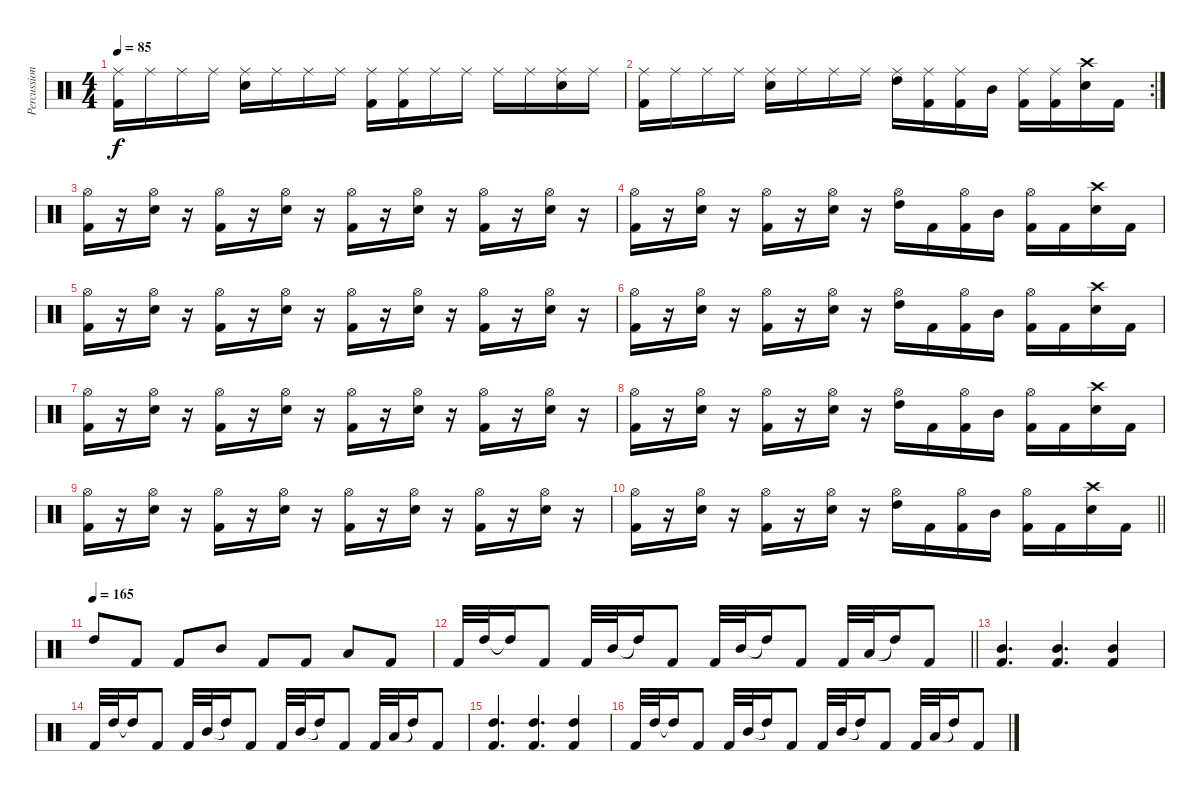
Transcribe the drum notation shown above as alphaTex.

\track ("Percussion" "Percussion") {instrument percussion}
\staff {score}
\articulation defaults
\ts (4 4)
\tempo 85
\clef neutral
\ks c
("Ride (middle)" "Kick (hit) 2").16{dy f} "Ride (middle)".16 "Ride (middle)".16 "Ride (middle)".16 ("Ride (middle)" "Electric Snare (hit)").16 "Ride (middle)".16 "Ride (middle)".16 "Ride (middle)".16 ("Ride (middle)" "Kick (hit) 2").16 ("Ride (middle)" "Kick (hit) 2").16 "Ride (middle)".16 "Ride (middle)".16 "Ride (middle)".16 "Ride (middle)".16 ("Ride (middle)" "Electric Snare (hit)").16 "Ride (middle)".16 |
\rc 2
("Ride (middle)" "Kick (hit) 2").16 "Ride (middle)".16 "Ride (middle)".16 "Ride (middle)".16 ("Ride (middle)" "Electric Snare (hit)").16 "Ride (middle)".16 "Ride (middle)".16 "Ride (middle)".16 ("Ride (middle)" "High Tom (hit)").16 ("Ride (middle)" "Kick (hit) 2").16 ("Ride (middle)" "Kick (hit) 2").16 "Mid Tom (hit)".16 ("Ride (middle)" "Kick (hit) 2").16 ("Ride (middle)" "Kick (hit) 2").16 ("Crash high (hit)" "Electric Snare (hit)").16 "Kick (hit) 2".16 |
("Hi-Hat (open)" "Kick (hit) 2").16 r.16 ("Hi-Hat (open)" "Electric Snare (hit)").16 r.16 ("Hi-Hat (open)" "Kick (hit) 2").16 r.16 ("Hi-Hat (open)" "Electric Snare (hit)").16 r.16 ("Hi-Hat (open)" "Kick (hit) 2").16 r.16 ("Hi-Hat (open)" "Electric Snare (hit)").16 r.16 ("Hi-Hat (open)" "Kick (hit) 2").16 r.16 ("Hi-Hat (open)" "Electric Snare (hit)").16 r.16 |
("Hi-Hat (open)" "Kick (hit) 2").16 r.16 ("Hi-Hat (open)" "Electric Snare (hit)").16 r.16 ("Hi-Hat (open)" "Kick (hit) 2").16 r.16 ("Hi-Hat (open)" "Electric Snare (hit)").16 r.16 ("Hi-Hat (open)" "High Tom (hit)").16 "Kick (hit) 2".16 ("Hi-Hat (open)" "Kick (hit) 2").16 "Mid Tom (hit)".16 ("Hi-Hat (open)" "Kick (hit) 2").16 "Kick (hit) 2".16 ("Crash high (hit)" "Electric Snare (hit)").16 "Kick (hit) 2".16 |
("Hi-Hat (open)" "Kick (hit) 2").16 r.16 ("Hi-Hat (open)" "Electric Snare (hit)").16 r.16 ("Hi-Hat (open)" "Kick (hit) 2").16 r.16 ("Hi-Hat (open)" "Electric Snare (hit)").16 r.16 ("Hi-Hat (open)" "Kick (hit) 2").16 r.16 ("Hi-Hat (open)" "Electric Snare (hit)").16 r.16 ("Hi-Hat (open)" "Kick (hit) 2").16 r.16 ("Hi-Hat (open)" "Electric Snare (hit)").16 r.16 |
("Hi-Hat (open)" "Kick (hit) 2").16 r.16 ("Hi-Hat (open)" "Electric Snare (hit)").16 r.16 ("Hi-Hat (open)" "Kick (hit) 2").16 r.16 ("Hi-Hat (open)" "Electric Snare (hit)").16 r.16 ("Hi-Hat (open)" "High Tom (hit)").16 "Kick (hit) 2".16 ("Hi-Hat (open)" "Kick (hit) 2").16 "Mid Tom (hit)".16 ("Hi-Hat (open)" "Kick (hit) 2").16 "Kick (hit) 2".16 ("Crash high (hit)" "Electric Snare (hit)").16 "Kick (hit) 2".16 |
("Hi-Hat (open)" "Kick (hit) 2").16 r.16 ("Hi-Hat (open)" "Electric Snare (hit)").16 r.16 ("Hi-Hat (open)" "Kick (hit) 2").16 r.16 ("Hi-Hat (open)" "Electric Snare (hit)").16 r.16 ("Hi-Hat (open)" "Kick (hit) 2").16 r.16 ("Hi-Hat (open)" "Electric Snare (hit)").16 r.16 ("Hi-Hat (open)" "Kick (hit) 2").16 r.16 ("Hi-Hat (open)" "Electric Snare (hit)").16 r.16 |
("Hi-Hat (open)" "Kick (hit) 2").16 r.16 ("Hi-Hat (open)" "Electric Snare (hit)").16 r.16 ("Hi-Hat (open)" "Kick (hit) 2").16 r.16 ("Hi-Hat (open)" "Electric Snare (hit)").16 r.16 ("Hi-Hat (open)" "High Tom (hit)").16 "Kick (hit) 2".16 ("Hi-Hat (open)" "Kick (hit) 2").16 "Mid Tom (hit)".16 ("Hi-Hat (open)" "Kick (hit) 2").16 "Kick (hit) 2".16 ("Crash high (hit)" "Electric Snare (hit)").16 "Kick (hit) 2".16 |
("Hi-Hat (open)" "Kick (hit) 2").16 r.16 ("Hi-Hat (open)" "Electric Snare (hit)").16 r.16 ("Hi-Hat (open)" "Kick (hit) 2").16 r.16 ("Hi-Hat (open)" "Electric Snare (hit)").16 r.16 ("Hi-Hat (open)" "Kick (hit) 2").16 r.16 ("Hi-Hat (open)" "Electric Snare (hit)").16 r.16 ("Hi-Hat (open)" "Kick (hit) 2").16 r.16 ("Hi-Hat (open)" "Electric Snare (hit)").16 r.16 |
\barLineRight lightlight
("Hi-Hat (open)" "Kick (hit) 2").16 r.16 ("Hi-Hat (open)" "Electric Snare (hit)").16 r.16 ("Hi-Hat (open)" "Kick (hit) 2").16 r.16 ("Hi-Hat (open)" "Electric Snare (hit)").16 r.16 ("Hi-Hat (open)" "High Tom (hit)").16 "Kick (hit) 2".16 ("Hi-Hat (open)" "Kick (hit) 2").16 "Mid Tom (hit)".16 ("Hi-Hat (open)" "Kick (hit) 2").16 "Kick (hit) 2".16 ("Crash high (hit)" "Electric Snare (hit)").16 "Kick (hit) 2".16 |
\tempo (165)
"High Tom (hit)".8 "Kick (hit) 2".8 "Kick (hit) 2".8 "Mid Tom (hit)".8 "Kick (hit) 2".8 "Kick (hit) 2".8 "Low Tom (hit)".8 "Kick (hit) 2".8 |
\barLineRight lightlight "Kick (hit) 2".32 "High Tom (hit)".32 "High Tom (hit)"{t}.16 "Kick (hit) 2".8 "Kick (hit) 2".32 "Mid Tom (hit)".32 "High Tom (hit)"{t}.16 "Kick (hit) 2".8 "Kick (hit) 2".32 "Mid Tom (hit)".32 "High Tom (hit)"{t}.16 "Kick (hit) 2".8 "Kick (hit) 2".32 "Low Tom (hit)".32 "High Tom (hit)"{t}.16 "Kick (hit) 2".8
|
("Mid Tom (hit)" "Kick (hit) 2").4{d} ("Mid Tom (hit)" "Kick (hit) 2").4{d} ("Mid Tom (hit)" "Kick (hit) 2").4 |
"Kick (hit) 2".32 "High Tom (hit)".32 "High Tom (hit)"{t}.16 "Kick (hit) 2".8 "Kick (hit) 2".32 "Mid Tom (hit)".32 "High Tom (hit)"{t}.16 "Kick (hit) 2".8 "Kick (hit) 2".32 "Mid Tom (hit)".32 "High Tom (hit)"{t}.16 "Kick (hit) 2".8 "Kick (hit) 2".32 "Low Tom (hit)".32 "High Tom (hit)"{t}.16 "Kick (hit) 2".8 |
("High Tom (hit)" "Kick (hit) 2").4{d} ("High Tom (hit)" "Kick (hit) 2").4{d} ("High Tom (hit)" "Kick (hit) 2").4 |
"Kick (hit) 2".32 "High Tom (hit)".32 "High Tom (hit)"{t}.16 "Kick (hit) 2".8 "Kick (hit) 2".32 "Mid Tom (hit)".32 "High Tom (hit)"{t}.16 "Kick (hit) 2".8 "Kick (hit) 2".32 "Mid Tom (hit)".32 "High Tom (hit)"{t}.16 "Kick (hit) 2".8 "Kick (hit) 2".32 "Low Tom (hit)".32 "High Tom (hit)"{t}.16 "Kick (hit) 2".8
